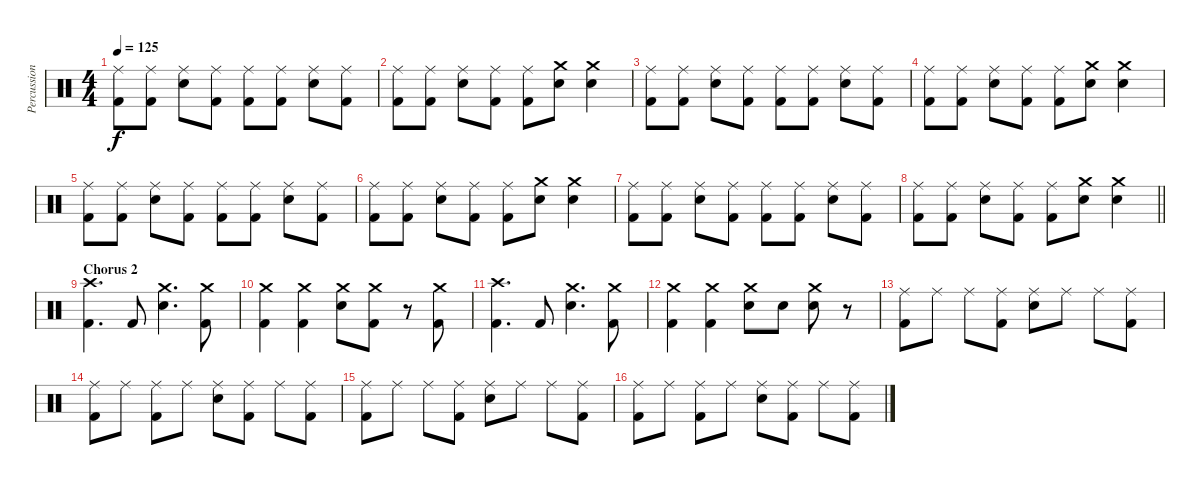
\track ("Percussion" "Percussion") {instrument percussion}
\staff {score}
\articulation defaults
\ts (4 4)
\tempo 125
\clef neutral
\ks c
("Ride (middle)" "Kick (hit) 2").8{dy f} ("Ride (middle)" "Kick (hit) 2").8 ("Ride (middle)" "Electric Snare (hit)").8 ("Ride (middle)" "Kick (hit) 2").8 ("Ride (middle)" "Kick (hit) 2").8 ("Ride (middle)" "Kick (hit) 2").8 ("Ride (middle)" "Electric Snare (hit)").8 ("Ride (middle)" "Kick (hit) 2").8 |
("Ride (middle)" "Kick (hit) 2").8 ("Ride (middle)" "Kick (hit) 2").8 ("Ride (middle)" "Electric Snare (hit)").8 ("Ride (middle)" "Kick (hit) 2").8 ("Ride (middle)" "Kick (hit) 2").8 ("Crash medium (hit)" "Electric Snare (hit)").8 ("Crash medium (hit)" "Electric Snare (hit)").4 |
("Ride (middle)" "Kick (hit) 2").8 ("Ride (middle)" "Kick (hit) 2").8 ("Ride (middle)" "Electric Snare (hit)").8 ("Ride (middle)" "Kick (hit) 2").8 ("Ride (middle)" "Kick (hit) 2").8 ("Ride (middle)" "Kick (hit) 2").8 ("Ride (middle)" "Electric Snare (hit)").8 ("Ride (middle)" "Kick (hit) 2").8 |
("Ride (middle)" "Kick (hit) 2").8 ("Ride (middle)" "Kick (hit) 2").8 ("Ride (middle)" "Electric Snare (hit)").8 ("Ride (middle)" "Kick (hit) 2").8 ("Ride (middle)" "Kick (hit) 2").8 ("Crash medium (hit)" "Electric Snare (hit)").8 ("Crash medium (hit)" "Electric Snare (hit)").4 |
("Ride (middle)" "Kick (hit) 2").8 ("Ride (middle)" "Kick (hit) 2").8 ("Ride (middle)" "Electric Snare (hit)").8 ("Ride (middle)" "Kick (hit) 2").8 ("Ride (middle)" "Kick (hit) 2").8 ("Ride (middle)" "Kick (hit) 2").8 ("Ride (middle)" "Electric Snare (hit)").8 ("Ride (middle)" "Kick (hit) 2").8 |
("Ride (middle)" "Kick (hit) 2").8 ("Ride (middle)" "Kick (hit) 2").8 ("Ride (middle)" "Electric Snare (hit)").8 ("Ride (middle)" "Kick (hit) 2").8 ("Ride (middle)" "Kick (hit) 2").8 ("Crash medium (hit)" "Electric Snare (hit)").8 ("Crash medium (hit)" "Electric Snare (hit)").4 |
("Ride (middle)" "Kick (hit) 2").8 ("Ride (middle)" "Kick (hit) 2").8 ("Ride (middle)" "Electric Snare (hit)").8 ("Ride (middle)" "Kick (hit) 2").8 ("Ride (middle)" "Kick (hit) 2").8 ("Ride (middle)" "Kick (hit) 2").8 ("Ride (middle)" "Electric Snare (hit)").8 ("Ride (middle)" "Kick (hit) 2").8 |
\barLineRight lightlight
("Ride (middle)" "Kick (hit) 2").8 ("Ride (middle)" "Kick (hit) 2").8 ("Ride (middle)" "Electric Snare (hit)").8 ("Ride (middle)" "Kick (hit) 2").8 ("Ride (middle)" "Kick (hit) 2").8 ("Crash medium (hit)" "Electric Snare (hit)").8 ("Crash medium (hit)" "Electric Snare (hit)").4 |
\section ("" "Chorus 2")
("Crash high (hit)" "Kick (hit) 2").4{d} "Kick (hit) 2".8 ("Crash medium (hit)" "Electric Snare (hit)").4{d} ("Crash medium (hit)" "Kick (hit) 2").8 |
("Crash medium (hit)" "Kick (hit) 2").4 ("Crash medium (hit)" "Kick (hit) 2").4 ("Crash medium (hit)" "Electric Snare (hit)").8 ("Crash medium (hit)" "Kick (hit) 2").8 r.8 ("Crash medium (hit)" "Kick (hit) 2").8 |
("Crash high (hit)" "Kick (hit) 2").4{d} "Kick (hit) 2".8 ("Crash medium (hit)" "Electric Snare (hit)").4{d} ("Crash medium (hit)" "Kick (hit) 2").8 |
("Crash medium (hit)" "Kick (hit) 2").4 ("Crash medium (hit)" "Kick (hit) 2").4 ("Crash medium (hit)" "Electric Snare (hit)").8 "Electric Snare (hit)".8 ("Crash medium (hit)" "Electric Snare (hit)").8 r.8 |
("Ride (middle)" "Kick (hit) 2").8 "Ride (middle)".8 "Ride (middle)".8 ("Ride (middle)" "Kick (hit) 2").8 ("Ride (middle)" "Electric Snare (hit)").8 "Ride (middle)".8 "Ride (middle)".8 ("Ride (middle)" "Kick (hit) 2").8 |
("Ride (middle)" "Kick (hit) 2").8 "Ride (middle)".8 ("Ride (middle)" "Kick (hit) 2").8 "Ride (middle)".8 ("Ride (middle)" "Electric Snare (hit)").8 ("Ride (middle)" "Kick (hit) 2").8 "Ride (middle)".8 ("Ride (middle)" "Kick (hit) 2").8 |
("Ride (middle)" "Kick (hit) 2").8 "Ride (middle)".8 "Ride (middle)".8 ("Ride (middle)" "Kick (hit) 2").8 ("Ride (middle)" "Electric Snare (hit)").8 "Ride (middle)".8 "Ride (middle)".8 ("Ride (middle)" "Kick (hit) 2").8 |
("Ride (middle)" "Kick (hit) 2").8 "Ride (middle)".8 ("Ride (middle)" "Kick (hit) 2").8 "Ride (middle)".8 ("Ride (middle)" "Electric Snare (hit)").8 ("Ride (middle)" "Kick (hit) 2").8 "Ride (middle)".8 ("Ride (middle)" "Kick (hit) 2").8
